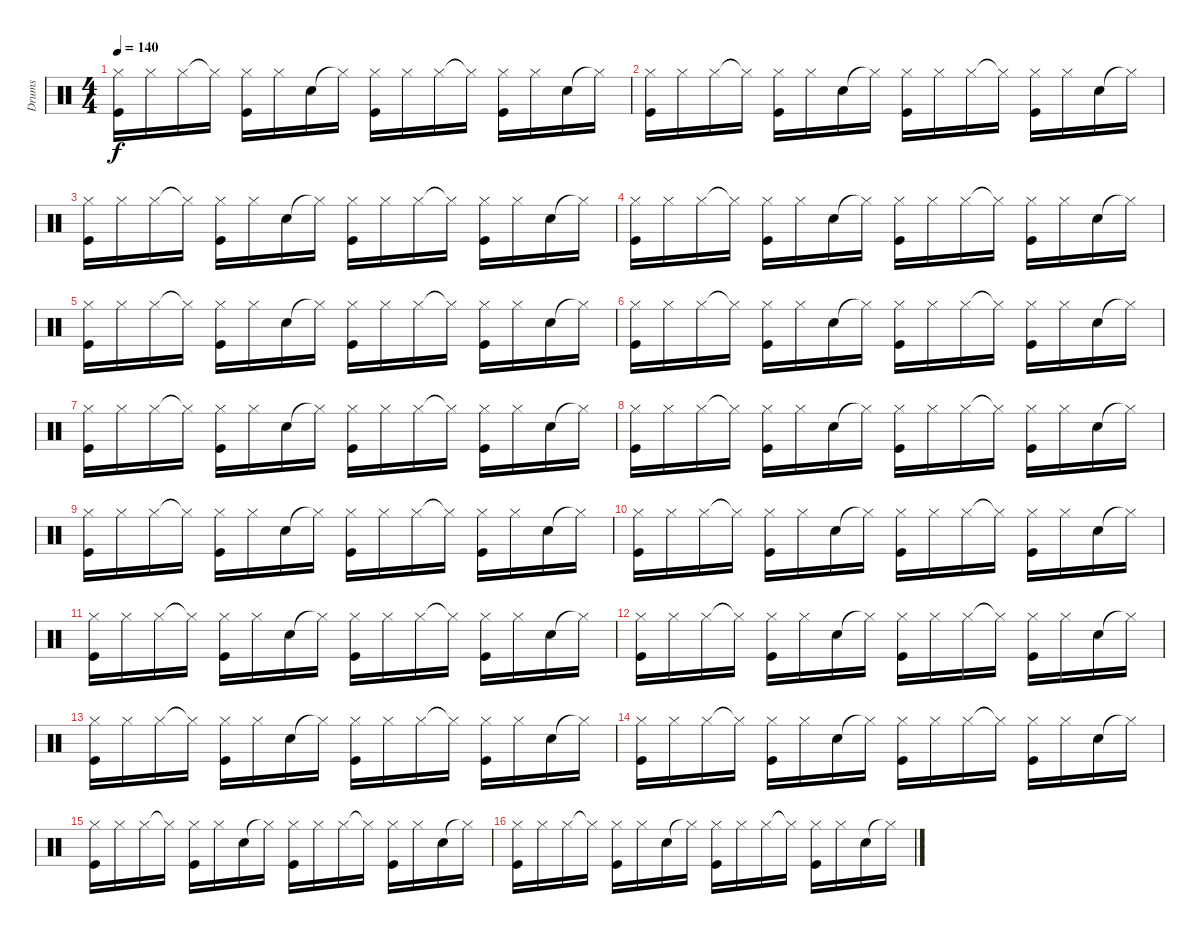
\track ("Drums" "Drums") {instrument percussion}
\staff {score}
\articulation defaults
\ts (4 4)
\tempo 140
\clef neutral
\ks c
("Hi-Hat (closed)" "Kick (hit)").16{dy f} "Hi-Hat (closed)".16 "Hi-Hat (closed)".16 "Hi-Hat (closed)"{t}.16 ("Hi-Hat (closed)" "Kick (hit)").16 "Hi-Hat (closed)".16 "Snare (hit) 2".16 "Hi-Hat (closed)"{t}.16 ("Hi-Hat (closed)" "Kick (hit)").16 "Hi-Hat (closed)".16 "Hi-Hat (closed)".16 "Hi-Hat (closed)"{t}.16 ("Hi-Hat (closed)" "Kick (hit)").16 "Hi-Hat (closed)".16 "Snare (hit) 2".16 "Hi-Hat (closed)"{t}.16 |
("Hi-Hat (closed)" "Kick (hit)").16 "Hi-Hat (closed)".16 "Hi-Hat (closed)".16 "Hi-Hat (closed)"{t}.16 ("Hi-Hat (closed)" "Kick (hit)").16 "Hi-Hat (closed)".16 "Snare (hit) 2".16 "Hi-Hat (closed)"{t}.16 ("Hi-Hat (closed)" "Kick (hit)").16 "Hi-Hat (closed)".16 "Hi-Hat (closed)".16 "Hi-Hat (closed)"{t}.16 ("Hi-Hat (closed)" "Kick (hit)").16 "Hi-Hat (closed)".16 "Snare (hit) 2".16 "Hi-Hat (closed)"{t}.16 |
("Hi-Hat (closed)" "Kick (hit)").16 "Hi-Hat (closed)".16 "Hi-Hat (closed)".16 "Hi-Hat (closed)"{t}.16 ("Hi-Hat (closed)" "Kick (hit)").16 "Hi-Hat (closed)".16 "Snare (hit) 2".16 "Hi-Hat (closed)"{t}.16 ("Hi-Hat (closed)" "Kick (hit)").16 "Hi-Hat (closed)".16 "Hi-Hat (closed)".16 "Hi-Hat (closed)"{t}.16 ("Hi-Hat (closed)" "Kick (hit)").16 "Hi-Hat (closed)".16 "Snare (hit) 2".16 "Hi-Hat (closed)"{t}.16 |
("Hi-Hat (closed)" "Kick (hit)").16 "Hi-Hat (closed)".16 "Hi-Hat (closed)".16 "Hi-Hat (closed)"{t}.16 ("Hi-Hat (closed)" "Kick (hit)").16 "Hi-Hat (closed)".16 "Snare (hit) 2".16 "Hi-Hat (closed)"{t}.16 ("Hi-Hat (closed)" "Kick (hit)").16 "Hi-Hat (closed)".16 "Hi-Hat (closed)".16 "Hi-Hat (closed)"{t}.16 ("Hi-Hat (closed)" "Kick (hit)").16 "Hi-Hat (closed)".16 "Snare (hit) 2".16 "Hi-Hat (closed)"{t}.16 |
("Hi-Hat (closed)" "Kick (hit)").16 "Hi-Hat (closed)".16 "Hi-Hat (closed)".16 "Hi-Hat (closed)"{t}.16 ("Hi-Hat (closed)" "Kick (hit)").16 "Hi-Hat (closed)".16 "Snare (hit) 2".16 "Hi-Hat (closed)"{t}.16 ("Hi-Hat (closed)" "Kick (hit)").16 "Hi-Hat (closed)".16 "Hi-Hat (closed)".16 "Hi-Hat (closed)"{t}.16 ("Hi-Hat (closed)" "Kick (hit)").16 "Hi-Hat (closed)".16 "Snare (hit) 2".16 "Hi-Hat (closed)"{t}.16 |
("Hi-Hat (closed)" "Kick (hit)").16 "Hi-Hat (closed)".16 "Hi-Hat (closed)".16 "Hi-Hat (closed)"{t}.16 ("Hi-Hat (closed)" "Kick (hit)").16 "Hi-Hat (closed)".16 "Snare (hit) 2".16 "Hi-Hat (closed)"{t}.16 ("Hi-Hat (closed)" "Kick (hit)").16 "Hi-Hat (closed)".16 "Hi-Hat (closed)".16 "Hi-Hat (closed)"{t}.16 ("Hi-Hat (closed)" "Kick (hit)").16 "Hi-Hat (closed)".16 "Snare (hit) 2".16 "Hi-Hat (closed)"{t}.16 |
("Hi-Hat (closed)" "Kick (hit)").16 "Hi-Hat (closed)".16 "Hi-Hat (closed)".16 "Hi-Hat (closed)"{t}.16 ("Hi-Hat (closed)" "Kick (hit)").16 "Hi-Hat (closed)".16 "Snare (hit) 2".16 "Hi-Hat (closed)"{t}.16 ("Hi-Hat (closed)" "Kick (hit)").16 "Hi-Hat (closed)".16 "Hi-Hat (closed)".16 "Hi-Hat (closed)"{t}.16 ("Hi-Hat (closed)" "Kick (hit)").16 "Hi-Hat (closed)".16 "Snare (hit) 2".16 "Hi-Hat (closed)"{t}.16 |
("Hi-Hat (closed)" "Kick (hit)").16 "Hi-Hat (closed)".16 "Hi-Hat (closed)".16 "Hi-Hat (closed)"{t}.16 ("Hi-Hat (closed)" "Kick (hit)").16 "Hi-Hat (closed)".16 "Snare (hit) 2".16 "Hi-Hat (closed)"{t}.16 ("Hi-Hat (closed)" "Kick (hit)").16 "Hi-Hat (closed)".16 "Hi-Hat (closed)".16 "Hi-Hat (closed)"{t}.16 ("Hi-Hat (closed)" "Kick (hit)").16 "Hi-Hat (closed)".16 "Snare (hit) 2".16 "Hi-Hat (closed)"{t}.16 |
("Hi-Hat (closed)" "Kick (hit)").16 "Hi-Hat (closed)".16 "Hi-Hat (closed)".16 "Hi-Hat (closed)"{t}.16 ("Hi-Hat (closed)" "Kick (hit)").16 "Hi-Hat (closed)".16 "Snare (hit) 2".16 "Hi-Hat (closed)"{t}.16 ("Hi-Hat (closed)" "Kick (hit)").16 "Hi-Hat (closed)".16 "Hi-Hat (closed)".16 "Hi-Hat (closed)"{t}.16 ("Hi-Hat (closed)" "Kick (hit)").16 "Hi-Hat (closed)".16 "Snare (hit) 2".16 "Hi-Hat (closed)"{t}.16 |
("Hi-Hat (closed)" "Kick (hit)").16 "Hi-Hat (closed)".16 "Hi-Hat (closed)".16 "Hi-Hat (closed)"{t}.16 ("Hi-Hat (closed)" "Kick (hit)").16 "Hi-Hat (closed)".16 "Snare (hit) 2".16 "Hi-Hat (closed)"{t}.16 ("Hi-Hat (closed)" "Kick (hit)").16 "Hi-Hat (closed)".16 "Hi-Hat (closed)".16 "Hi-Hat (closed)"{t}.16 ("Hi-Hat (closed)" "Kick (hit)").16 "Hi-Hat (closed)".16 "Snare (hit) 2".16 "Hi-Hat (closed)"{t}.16 |
("Hi-Hat (closed)" "Kick (hit)").16 "Hi-Hat (closed)".16 "Hi-Hat (closed)".16 "Hi-Hat (closed)"{t}.16 ("Hi-Hat (closed)" "Kick (hit)").16 "Hi-Hat (closed)".16 "Snare (hit) 2".16 "Hi-Hat (closed)"{t}.16 ("Hi-Hat (closed)" "Kick (hit)").16 "Hi-Hat (closed)".16 "Hi-Hat (closed)".16 "Hi-Hat (closed)"{t}.16 ("Hi-Hat (closed)" "Kick (hit)").16 "Hi-Hat (closed)".16 "Snare (hit) 2".16 "Hi-Hat (closed)"{t}.16 |
("Hi-Hat (closed)" "Kick (hit)").16 "Hi-Hat (closed)".16 "Hi-Hat (closed)".16 "Hi-Hat (closed)"{t}.16 ("Hi-Hat (closed)" "Kick (hit)").16 "Hi-Hat (closed)".16 "Snare (hit) 2".16 "Hi-Hat (closed)"{t}.16 ("Hi-Hat (closed)" "Kick (hit)").16 "Hi-Hat (closed)".16 "Hi-Hat (closed)".16 "Hi-Hat (closed)"{t}.16 ("Hi-Hat (closed)" "Kick (hit)").16 "Hi-Hat (closed)".16 "Snare (hit) 2".16 "Hi-Hat (closed)"{t}.16 |
("Hi-Hat (closed)" "Kick (hit)").16 "Hi-Hat (closed)".16 "Hi-Hat (closed)".16 "Hi-Hat (closed)"{t}.16 ("Hi-Hat (closed)" "Kick (hit)").16 "Hi-Hat (closed)".16 "Snare (hit) 2".16 "Hi-Hat (closed)"{t}.16 ("Hi-Hat (closed)" "Kick (hit)").16 "Hi-Hat (closed)".16 "Hi-Hat (closed)".16 "Hi-Hat (closed)"{t}.16 ("Hi-Hat (closed)" "Kick (hit)").16 "Hi-Hat (closed)".16 "Snare (hit) 2".16 "Hi-Hat (closed)"{t}.16 |
("Hi-Hat (closed)" "Kick (hit)").16 "Hi-Hat (closed)".16 "Hi-Hat (closed)".16 "Hi-Hat (closed)"{t}.16 ("Hi-Hat (closed)" "Kick (hit)").16 "Hi-Hat (closed)".16 "Snare (hit) 2".16 "Hi-Hat (closed)"{t}.16 ("Hi-Hat (closed)" "Kick (hit)").16 "Hi-Hat (closed)".16 "Hi-Hat (closed)".16 "Hi-Hat (closed)"{t}.16 ("Hi-Hat (closed)" "Kick (hit)").16 "Hi-Hat (closed)".16 "Snare (hit) 2".16 "Hi-Hat (closed)"{t}.16 |
("Hi-Hat (closed)" "Kick (hit)").16 "Hi-Hat (closed)".16 "Hi-Hat (closed)".16 "Hi-Hat (closed)"{t}.16 ("Hi-Hat (closed)" "Kick (hit)").16 "Hi-Hat (closed)".16 "Snare (hit) 2".16 "Hi-Hat (closed)"{t}.16 ("Hi-Hat (closed)" "Kick (hit)").16 "Hi-Hat (closed)".16 "Hi-Hat (closed)".16 "Hi-Hat (closed)"{t}.16 ("Hi-Hat (closed)" "Kick (hit)").16 "Hi-Hat (closed)".16 "Snare (hit) 2".16 "Hi-Hat (closed)"{t}.16 |
("Hi-Hat (closed)" "Kick (hit)").16 "Hi-Hat (closed)".16 "Hi-Hat (closed)".16 "Hi-Hat (closed)"{t}.16 ("Hi-Hat (closed)" "Kick (hit)").16 "Hi-Hat (closed)".16 "Snare (hit) 2".16 "Hi-Hat (closed)"{t}.16 ("Hi-Hat (closed)" "Kick (hit)").16 "Hi-Hat (closed)".16 "Hi-Hat (closed)".16 "Hi-Hat (closed)"{t}.16 ("Hi-Hat (closed)" "Kick (hit)").16 "Hi-Hat (closed)".16 "Snare (hit) 2".16 "Hi-Hat (closed)"{t}.16
